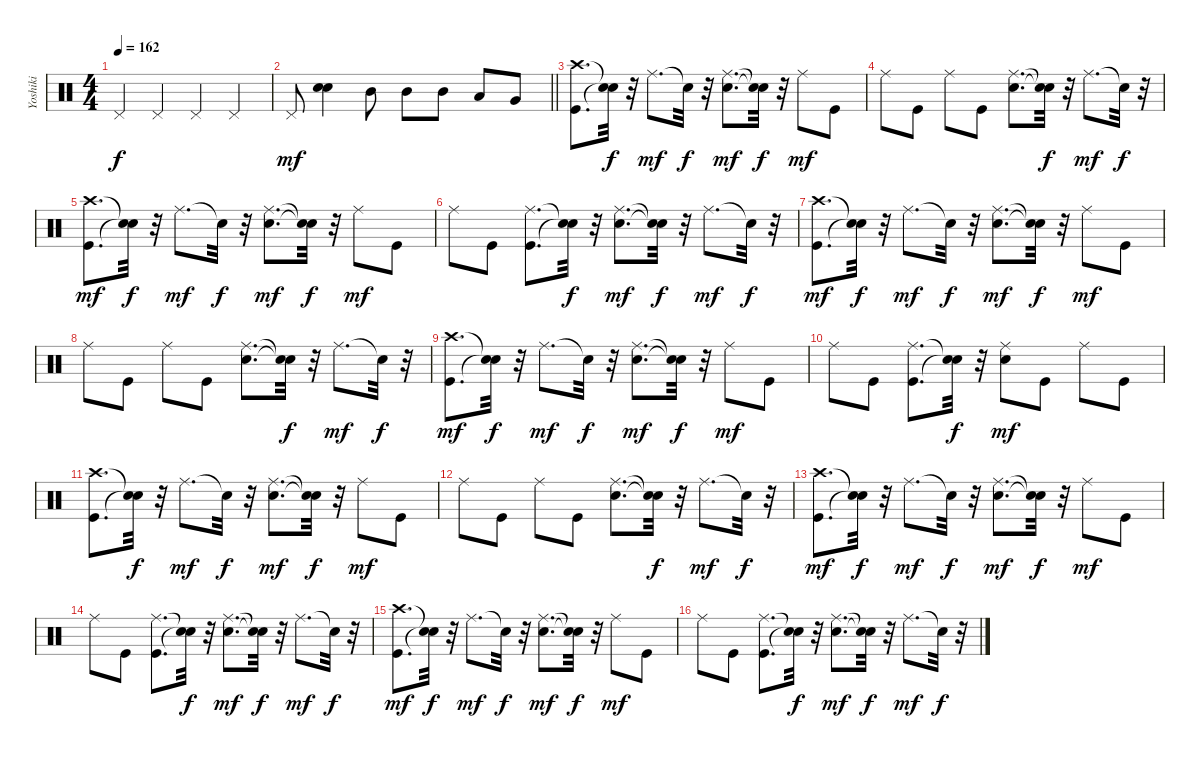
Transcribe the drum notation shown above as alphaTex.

\track ("Yoshiki" "Yoshiki") {instrument percussion}
\staff {score}
\articulation defaults
\ts (4 4)
\tempo 162
\clef neutral
\ks c "Pedal Hi-Hat (hit)".4{dy f} "Pedal Hi-Hat (hit)".4 "Pedal Hi-Hat (hit)".4 "Pedal Hi-Hat (hit)".4
|
\barLineRight lightlight "Pedal Hi-Hat (hit)".8{dy mf}
("Snare (hit) 2" "Snare (hit) 2").4 "Mid Tom (hit)".8 "Mid Tom (hit)".8 "Mid Tom (hit)".8 "Low Tom (hit)".8 "Very Low Tom (hit)".8 |
("Crash high (hit)" "Kick (hit)").8{d} ("Snare (hit)"{t} "Snare (hit)"{t}).32{dy f} r.32 "Ride (middle)".8{d dy mf} "Snare (hit)"{t}.32{dy f} r.32 ("Snare (hit) 2" "Ride (middle)").8{d dy mf} ("Snare (hit)"{t} "Snare (hit)"{t}).32{dy f} r.32 "Ride (middle)".8{dy mf} "Kick (hit)".8 |
"Ride (middle)".8 "Kick (hit)".8 "Ride (middle)".8 "Kick (hit)".8 ("Snare (hit) 2" "Ride (middle)").8{d} ("Snare (hit)"{t} "Snare (hit)"{t}).32{dy f} r.32 "Ride (middle)".8{d dy mf} "Snare (hit)"{t}.32{dy f} r.32 |
("Crash high (hit)" "Kick (hit)").8{d dy mf} ("Snare (hit)"{t} "Snare (hit)"{t}).32{dy f} r.32 "Ride (middle)".8{d dy mf} "Snare (hit)"{t}.32{dy f} r.32 ("Snare (hit) 2" "Ride (middle)").8{d dy mf} ("Snare (hit)"{t} "Snare (hit)"{t}).32{dy f} r.32 "Ride (middle)".8{dy mf} "Kick (hit)".8 |
"Ride (middle)".8 "Kick (hit)".8 ("Ride (middle)" "Kick (hit)").8{d} ("Snare (hit)"{t} "Snare (hit)"{t}).32{dy f} r.32 ("Snare (hit) 2" "Ride (middle)").8{d dy mf} ("Snare (hit)"{t} "Snare (hit)"{t}).32{dy f} r.32 "Ride (middle)".8{d dy mf} "Snare (hit)"{t}.32{dy f} r.32 |
("Crash high (hit)" "Kick (hit)").8{d dy mf} ("Snare (hit)"{t} "Snare (hit)"{t}).32{dy f} r.32 "Ride (middle)".8{d dy mf} "Snare (hit)"{t}.32{dy f} r.32 ("Snare (hit) 2" "Ride (middle)").8{d dy mf} ("Snare (hit)"{t} "Snare (hit)"{t}).32{dy f} r.32 "Ride (middle)".8{dy mf} "Kick (hit)".8 |
"Ride (middle)".8 "Kick (hit)".8 "Ride (middle)".8 "Kick (hit)".8 ("Snare (hit) 2" "Ride (middle)").8{d} ("Snare (hit)"{t} "Snare (hit)"{t}).32{dy f} r.32 "Ride (middle)".8{d dy mf} "Snare (hit)"{t}.32{dy f} r.32 |
("Crash high (hit)" "Kick (hit)").8{d dy mf} ("Snare (hit)"{t} "Snare (hit)"{t}).32{dy f} r.32 "Ride (middle)".8{d dy mf} "Snare (hit)"{t}.32{dy f} r.32 ("Snare (hit) 2" "Ride (middle)").8{d dy mf} ("Snare (hit)"{t} "Snare (hit)"{t}).32{dy f} r.32 "Ride (middle)".8{dy mf} "Kick (hit)".8 |
"Ride (middle)".8 "Kick (hit)".8 ("Ride (middle)" "Kick (hit)").8{d} ("Snare (hit)"{t} "Snare (hit)"{t}).32{dy f} r.32 ("Snare (hit) 2" "Ride (middle)").8{dy mf} "Kick (hit)".8 "Ride (middle)".8 "Kick (hit)".8 |
("Crash high (hit)" "Kick (hit)").8{d} ("Snare (hit)"{t} "Snare (hit)"{t}).32{dy f} r.32 "Ride (middle)".8{d dy mf} "Snare (hit)"{t}.32{dy f} r.32 ("Snare (hit) 2" "Ride (middle)").8{d dy mf} ("Snare (hit)"{t} "Snare (hit)"{t}).32{dy f} r.32 "Ride (middle)".8{dy mf} "Kick (hit)".8 |
"Ride (middle)".8 "Kick (hit)".8 "Ride (middle)".8 "Kick (hit)".8 ("Snare (hit) 2" "Ride (middle)").8{d} ("Snare (hit)"{t} "Snare (hit)"{t}).32{dy f} r.32 "Ride (middle)".8{d dy mf} "Snare (hit)"{t}.32{dy f} r.32 |
("Crash high (hit)" "Kick (hit)").8{d dy mf} ("Snare (hit)"{t} "Snare (hit)"{t}).32{dy f} r.32 "Ride (middle)".8{d dy mf} "Snare (hit)"{t}.32{dy f} r.32 ("Snare (hit) 2" "Ride (middle)").8{d dy mf} ("Snare (hit)"{t} "Snare (hit)"{t}).32{dy f} r.32 "Ride (middle)".8{dy mf} "Kick (hit)".8 |
"Ride (middle)".8 "Kick (hit)".8 ("Ride (middle)" "Kick (hit)").8{d} ("Snare (hit)"{t} "Snare (hit)"{t}).32{dy f} r.32 ("Snare (hit) 2" "Ride (middle)").8{d dy mf} ("Snare (hit)"{t} "Snare (hit)"{t}).32{dy f} r.32 "Ride (middle)".8{d dy mf} "Snare (hit)"{t}.32{dy f} r.32 |
("Crash high (hit)" "Kick (hit)").8{d dy mf} ("Snare (hit)"{t} "Snare (hit)"{t}).32{dy f} r.32 "Ride (middle)".8{d dy mf} "Snare (hit)"{t}.32{dy f} r.32 ("Snare (hit) 2" "Ride (middle)").8{d dy mf} ("Snare (hit)"{t} "Snare (hit)"{t}).32{dy f} r.32 "Ride (middle)".8{dy mf} "Kick (hit)".8 |
"Ride (middle)".8 "Kick (hit)".8 ("Ride (middle)" "Kick (hit)").8{d} ("Snare (hit)"{t} "Snare (hit)"{t}).32{dy f} r.32 ("Snare (hit) 2" "Ride (middle)").8{d dy mf} ("Snare (hit)"{t} "Snare (hit)"{t}).32{dy f} r.32 "Ride (middle)".8{d dy mf} "Snare (hit)"{t}.32{dy f} r.32
